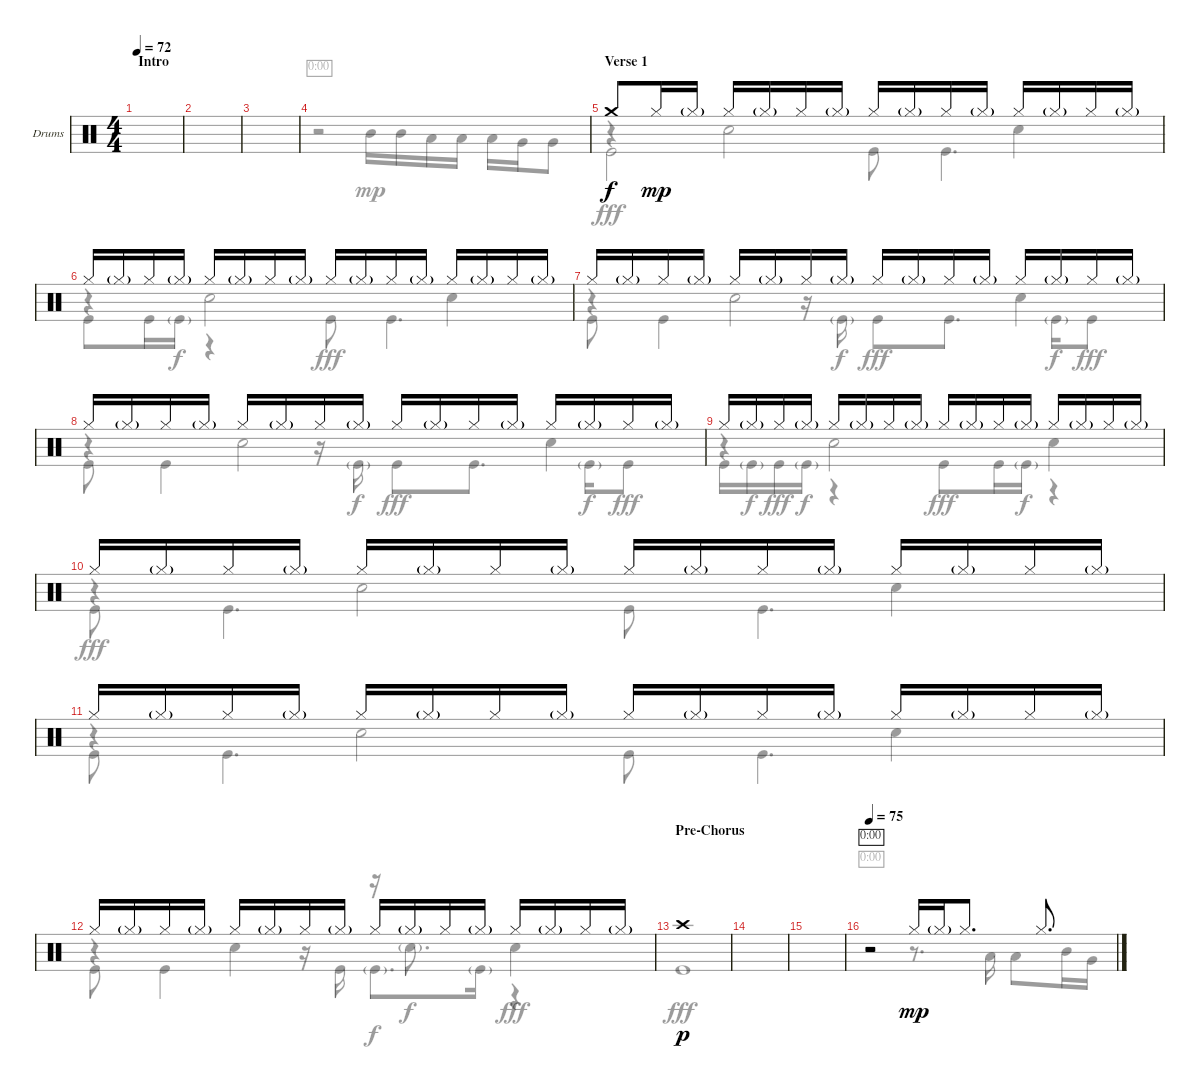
\defaultSystemsLayout 4
\bracketExtendMode groupsimilarinstruments
\firstSystemTrackNameOrientation horizontal
\otherSystemsTrackNameOrientation horizontal
\track ("Drumkit" "Drums") {instrument percussion}
\staff {score}
\articulation defaults
\voice
\ts (4 4)
\section ("" "Intro")
\tempo 72
\clef neutral
\scale
0.474178
\ks c
|
\scale
0.262911 |
\scale
0.262911 |
|
\section ("" "Verse 1")
"Crash medium (hit)".8 "Hi-Hat (closed)".16{dy mp} "Hi-Hat (closed)"{g}.16 "Hi-Hat (closed)".16 "Hi-Hat (closed)"{g}.16 "Hi-Hat (closed)".16 "Hi-Hat (closed)"{g}.16 "Hi-Hat (closed)".16 "Hi-Hat (closed)"{g}.16 "Hi-Hat (closed)".16 "Hi-Hat (closed)"{g}.16 "Hi-Hat (closed)".16 "Hi-Hat (closed)"{g}.16 "Hi-Hat (closed)".16 "Hi-Hat (closed)"{g}.16 |
"Hi-Hat (closed)".16 "Hi-Hat (closed)"{g}.16 "Hi-Hat (closed)".16 "Hi-Hat (closed)"{g}.16 "Hi-Hat (closed)".16 "Hi-Hat (closed)"{g}.16 "Hi-Hat (closed)".16 "Hi-Hat (closed)"{g}.16 "Hi-Hat (closed)".16 "Hi-Hat (closed)"{g}.16 "Hi-Hat (closed)".16 "Hi-Hat (closed)"{g}.16 "Hi-Hat (closed)".16 "Hi-Hat (closed)"{g}.16 "Hi-Hat (closed)".16 "Hi-Hat (closed)"{g}.16 |
"Hi-Hat (closed)".16 "Hi-Hat (closed)"{g}.16 "Hi-Hat (closed)".16 "Hi-Hat (closed)"{g}.16 "Hi-Hat (closed)".16 "Hi-Hat (closed)"{g}.16 "Hi-Hat (closed)".16 "Hi-Hat (closed)"{g}.16 "Hi-Hat (closed)".16 "Hi-Hat (closed)"{g}.16 "Hi-Hat (closed)".16 "Hi-Hat (closed)"{g}.16 "Hi-Hat (closed)".16 "Hi-Hat (closed)"{g}.16 "Hi-Hat (closed)".16 "Hi-Hat (closed)"{g}.16 |
"Hi-Hat (closed)".16 "Hi-Hat (closed)"{g}.16 "Hi-Hat (closed)".16 "Hi-Hat (closed)"{g}.16 "Hi-Hat (closed)".16 "Hi-Hat (closed)"{g}.16 "Hi-Hat (closed)".16 "Hi-Hat (closed)"{g}.16 "Hi-Hat (closed)".16 "Hi-Hat (closed)"{g}.16 "Hi-Hat (closed)".16 "Hi-Hat (closed)"{g}.16 "Hi-Hat (closed)".16 "Hi-Hat (closed)"{g}.16 "Hi-Hat (closed)".16 "Hi-Hat (closed)"{g}.16 |
"Hi-Hat (closed)".16 "Hi-Hat (closed)"{g}.16 "Hi-Hat (closed)".16 "Hi-Hat (closed)"{g}.16 "Hi-Hat (closed)".16 "Hi-Hat (closed)"{g}.16 "Hi-Hat (closed)".16 "Hi-Hat (closed)"{g}.16 "Hi-Hat (closed)".16 "Hi-Hat (closed)"{g}.16 "Hi-Hat (closed)".16 "Hi-Hat (closed)"{g}.16 "Hi-Hat (closed)".16 "Hi-Hat (closed)"{g}.16 "Hi-Hat (closed)".16 "Hi-Hat (closed)"{g}.16 |
"Hi-Hat (closed)".16 "Hi-Hat (closed)"{g}.16 "Hi-Hat (closed)".16 "Hi-Hat (closed)"{g}.16 "Hi-Hat (closed)".16 "Hi-Hat (closed)"{g}.16 "Hi-Hat (closed)".16 "Hi-Hat (closed)"{g}.16 "Hi-Hat (closed)".16 "Hi-Hat (closed)"{g}.16 "Hi-Hat (closed)".16 "Hi-Hat (closed)"{g}.16 "Hi-Hat (closed)".16 "Hi-Hat (closed)"{g}.16 "Hi-Hat (closed)".16 "Hi-Hat (closed)"{g}.16 |
"Hi-Hat (closed)".16 "Hi-Hat (closed)"{g}.16 "Hi-Hat (closed)".16 "Hi-Hat (closed)"{g}.16 "Hi-Hat (closed)".16 "Hi-Hat (closed)"{g}.16 "Hi-Hat (closed)".16 "Hi-Hat (closed)"{g}.16 "Hi-Hat (closed)".16 "Hi-Hat (closed)"{g}.16 "Hi-Hat (closed)".16 "Hi-Hat (closed)"{g}.16 "Hi-Hat (closed)".16 "Hi-Hat (closed)"{g}.16 "Hi-Hat (closed)".16 "Hi-Hat (closed)"{g}.16 |
"Hi-Hat (closed)".16 "Hi-Hat (closed)"{g}.16 "Hi-Hat (closed)".16 "Hi-Hat (closed)"{g}.16 "Hi-Hat (closed)".16 "Hi-Hat (closed)"{g}.16 "Hi-Hat (closed)".16 "Hi-Hat (closed)"{g}.16 "Hi-Hat (closed)".16 "Hi-Hat (closed)"{g}.16 "Hi-Hat (closed)".16 "Hi-Hat (closed)"{g}.16 "Hi-Hat (closed)".16 "Hi-Hat (closed)"{g}.16 "Hi-Hat (closed)".16 "Hi-Hat (closed)"{g}.16 |
\section ("" "Pre-Chorus")
"Crash high (hit)".1{dy p} |
|
|
\tempo 75
r.2{timer} "Hi-Hat (closed)".16{dy mp} "Hi-Hat (closed)"{g}.16 "Hi-Hat (closed)".8{d} "Hi-Hat (closed)".8{d}
\voice
\clef neutral
\ottava regular
\simile none
\scale
0.474178
\ks c
|
\scale
0.262911 |
\scale
0.262911 |
r.2{timer} "Mid Tom (hit)".16 "Mid Tom (hit)".16 "Low Tom (hit)".16 "Low Tom (hit)".16 "Low Tom (hit)".16 "Very Low Tom (hit)".16 "Very Low Tom (hit)".8 |
r.4 "Snare (hit) 2".2 "Snare (hit) 2".4 |
r.4 "Snare (hit) 2".2 "Snare (hit) 2".4 |
r.4 "Snare (hit) 2".2 "Snare (hit) 2".4 |
r.4 "Snare (hit) 2".2 "Snare (hit) 2".4 |
r.4 "Snare (hit) 2".2 "Snare (hit) 2".4 |
r.4 "Snare (hit) 2".2 "Snare (hit) 2".4 |
r.4 "Snare (hit) 2".2 "Snare (hit) 2".4 |
r.4 "Snare (hit) 2".4 r.16 "Snare (hit) 2"{g}.8{d dy f} "Snare (hit) 2".4{dy fff} |
|
|
|
r.2{timer} r.8{d} "Low Tom (hit)".16 "Low Tom (hit)".8 "Mid Tom (hit)".16 "Very Low Tom (hit)".16
\voice
\clef neutral
\ottava regular
\simile none
\scale
0.474178
\ks c
|
\scale
0.262911 |
\scale
0.262911 |
|
"Kick (hit)".2 "Kick (hit)".8 "Kick (hit)".4{d} |
"Kick (hit)".8 "Kick (hit)".16 "Kick (hit)"{g}.16{dy f} r.4 "Kick (hit)".8{dy fff} "Kick (hit)".4{d} |
"Kick (hit)".8 "Kick (hit)".4 r.16 "Kick (hit)"{g}.16{dy f} "Kick (hit)".8{dy fff} "Kick (hit)".8{d} "Kick (hit)"{g}.16{dy f} "Kick (hit)".8{dy fff} |
"Kick (hit)".8 "Kick (hit)".4 r.16 "Kick (hit)"{g}.16{dy f} "Kick (hit)".8{dy fff} "Kick (hit)".8{d} "Kick (hit)"{g}.16{dy f} "Kick (hit)".8{dy fff} |
"Kick (hit)".16 "Kick (hit)"{g}.16{dy f} "Kick (hit)".16{dy fff} "Kick (hit)"{g}.16{dy f} r.4 "Kick (hit)".8{dy fff} "Kick (hit)".16 "Kick (hit)"{g}.16{dy f} r.4 |
"Kick (hit)".8{dy fff} "Kick (hit)".4{d} "Kick (hit)".8 "Kick (hit)".4{d} |
"Kick (hit)".8 "Kick (hit)".4{d} "Kick (hit)".8 "Kick (hit)".4{d} |
"Kick (hit)".8 "Kick (hit)".4 r.16 "Kick (hit)".16 "Kick (hit)"{g}.8{d dy f} "Kick (hit)"{g}.16 r.4 |
"Kick (hit)".1{dy fff} |
|
|
